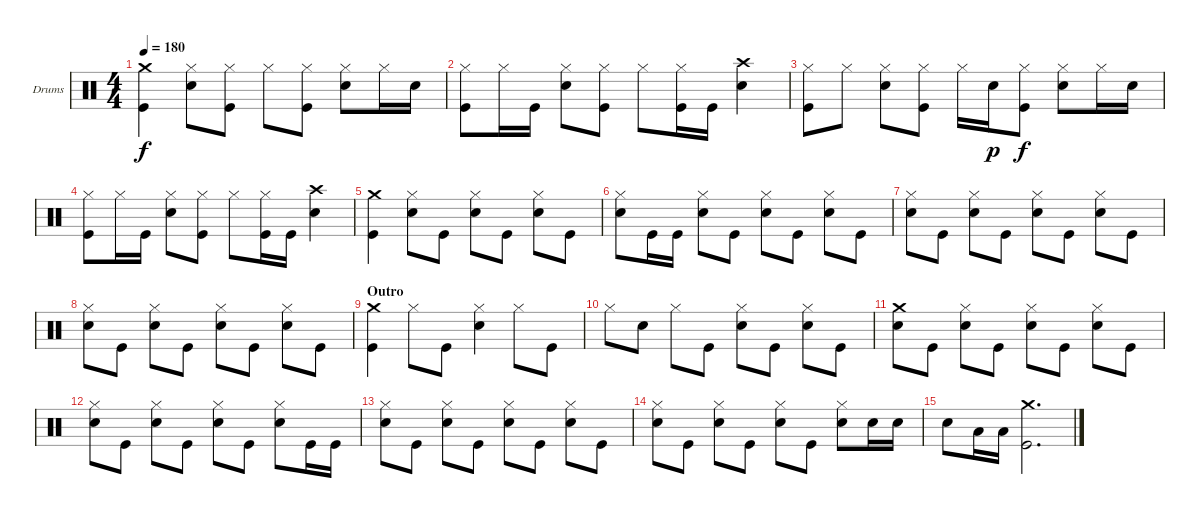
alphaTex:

\bracketExtendMode groupsimilarinstruments
\firstSystemTrackNameOrientation horizontal
\otherSystemsTrackNameOrientation horizontal
\track ("Drumkit" "Drums") {instrument percussion}
\staff {score}
\articulation defaults
\ts (4 4)
\tempo 180
\clef neutral
\ks c
("Crash medium (hit)" "Kick (hit)").4{dy f} ("Hi-Hat (closed)" "Snare (hit) 2").8 ("Hi-Hat (closed)" "Kick (hit)").8 "Hi-Hat (closed)".8 ("Hi-Hat (closed)" "Kick (hit)").8 ("Hi-Hat (closed)" "Snare (hit) 2").8 "Hi-Hat (closed)".16 "Snare (hit) 2".16 |
("Hi-Hat (closed)" "Kick (hit)").8 "Hi-Hat (closed)".16 "Kick (hit)".16 ("Hi-Hat (closed)" "Snare (hit) 2").8 ("Hi-Hat (closed)" "Kick (hit)").8 "Hi-Hat (closed)".8 ("Hi-Hat (closed)" "Kick (hit)").16 "Kick (hit)".16 ("Crash high (hit)" "Snare (hit) 2").4 |
("Hi-Hat (closed)" "Kick (hit)").8 "Hi-Hat (closed)".8 ("Hi-Hat (closed)" "Snare (hit) 2").8 ("Hi-Hat (closed)" "Kick (hit)").8 "Hi-Hat (closed)".16 "Snare (hit) 2".16{dy p} ("Hi-Hat (closed)" "Kick (hit)").8{dy f} ("Hi-Hat (closed)" "Snare (hit) 2").8 "Hi-Hat (closed)".16 "Snare (hit) 2".16 |
("Hi-Hat (closed)" "Kick (hit)").8 "Hi-Hat (closed)".16 "Kick (hit)".16 ("Hi-Hat (closed)" "Snare (hit) 2").8 ("Hi-Hat (closed)" "Kick (hit)").8 "Hi-Hat (closed)".8 ("Hi-Hat (closed)" "Kick (hit)").16 "Kick (hit)".16 ("Crash high (hit)" "Snare (hit) 2").4 |
("Crash medium (hit)" "Kick (hit)").4 ("Hi-Hat (closed)" "Snare (hit) 2").8 "Kick (hit)".8 ("Hi-Hat (closed)" "Snare (hit) 2").8 "Kick (hit)".8 ("Hi-Hat (closed)" "Snare (hit) 2").8 "Kick (hit)".8 |
("Hi-Hat (closed)" "Snare (hit) 2").8 "Kick (hit)".16 "Kick (hit)".16 ("Hi-Hat (closed)" "Snare (hit) 2").8 "Kick (hit)".8 ("Hi-Hat (closed)" "Snare (hit) 2").8 "Kick (hit)".8 ("Hi-Hat (closed)" "Snare (hit) 2").8 "Kick (hit)".8 |
("Hi-Hat (closed)" "Snare (hit) 2").8 "Kick (hit)".8 ("Hi-Hat (closed)" "Snare (hit) 2").8 "Kick (hit)".8 ("Hi-Hat (closed)" "Snare (hit) 2").8 "Kick (hit)".8 ("Hi-Hat (closed)" "Snare (hit) 2").8 "Kick (hit)".8 |
("Hi-Hat (closed)" "Snare (hit) 2").8 "Kick (hit)".8 ("Hi-Hat (closed)" "Snare (hit) 2").8 "Kick (hit)".8 ("Hi-Hat (closed)" "Snare (hit) 2").8 "Kick (hit)".8 ("Hi-Hat (closed)" "Snare (hit) 2").8 "Kick (hit)".8 |
\section ("" "Outro")
("Crash medium (hit)" "Kick (hit)").4 "Hi-Hat (closed)".8 "Kick (hit)".8 ("Hi-Hat (closed)" "Snare (hit) 2").4 "Hi-Hat (closed)".8 "Kick (hit)".8 |
"Hi-Hat (closed)".8 "Snare (hit) 2".8 "Hi-Hat (closed)".8 "Kick (hit)".8 ("Hi-Hat (closed)" "Snare (hit) 2").8 "Kick (hit)".8 ("Hi-Hat (closed)" "Snare (hit) 2").8 "Kick (hit)".8 |
("Crash medium (hit)" "Snare (hit) 2").8 "Kick (hit)".8 ("Hi-Hat (closed)" "Snare (hit) 2").8 "Kick (hit)".8 ("Hi-Hat (closed)" "Snare (hit) 2").8 "Kick (hit)".8 ("Hi-Hat (closed)" "Snare (hit) 2").8 "Kick (hit)".8 |
("Hi-Hat (closed)" "Snare (hit) 2").8 "Kick (hit)".8 ("Hi-Hat (closed)" "Snare (hit) 2").8 "Kick (hit)".8 ("Hi-Hat (closed)" "Snare (hit) 2").8 "Kick (hit)".8 ("Hi-Hat (closed)" "Snare (hit) 2").8 "Kick (hit)".16 "Kick (hit)".16 |
("Hi-Hat (closed)" "Snare (hit) 2").8 "Kick (hit)".8 ("Hi-Hat (closed)" "Snare (hit) 2").8 "Kick (hit)".8 ("Hi-Hat (closed)" "Snare (hit) 2").8 "Kick (hit)".8 ("Hi-Hat (closed)" "Snare (hit) 2").8 "Kick (hit)".8 |
("Hi-Hat (closed)" "Snare (hit) 2").8 "Kick (hit)".8 ("Hi-Hat (closed)" "Snare (hit) 2").8 "Kick (hit)".8 ("Hi-Hat (closed)" "Snare (hit) 2").8 "Kick (hit)".8 ("Hi-Hat (closed)" "Snare (hit) 2").8 "Snare (hit) 2".16 "Snare (hit) 2".16 |
"Snare (hit) 2".8 "Low Tom (hit)".16 "Low Tom (hit)".16 ("Crash medium (hit)" "Kick (hit)").2{d}
